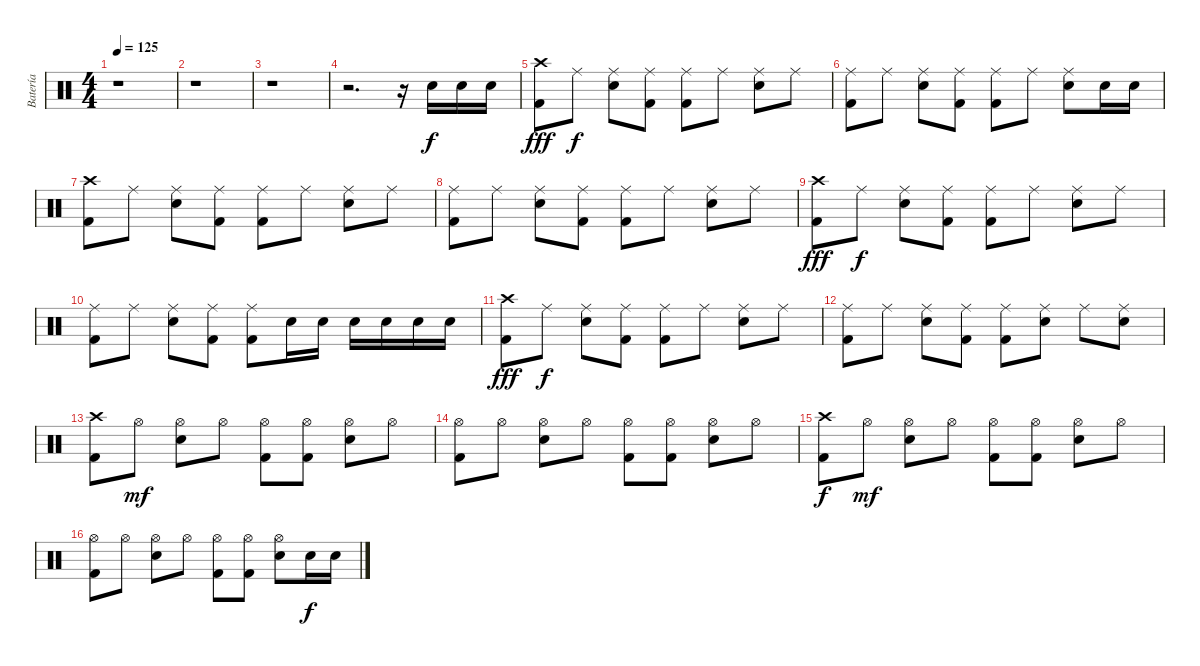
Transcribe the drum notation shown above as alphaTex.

\track ("Batería" "Batería") {instrument percussion}
\staff {score}
\articulation defaults
\ts (4 4)
\tempo 125
\clef neutral
\ks c
r.1{dy f} |
r.1 |
r.1 |
r.2{d} r.16 "Snare (hit) 2".16 "Snare (hit) 2".16 "Snare (hit) 2".16 |
("Crash high (hit)" "Kick (hit) 2").8{dy fff} "Ride (middle)".8{dy f} ("Ride (middle)" "Snare (hit) 2").8 ("Ride (middle)" "Kick (hit) 2").8 ("Ride (middle)" "Kick (hit) 2").8 "Ride (middle)".8 ("Ride (middle)" "Snare (hit) 2").8 "Ride (middle)".8 |
("Ride (middle)" "Kick (hit) 2").8 "Ride (middle)".8 ("Ride (middle)" "Snare (hit) 2").8 ("Ride (middle)" "Kick (hit) 2").8 ("Ride (middle)" "Kick (hit) 2").8 "Ride (middle)".8 ("Ride (middle)" "Snare (hit) 2").8 "Snare (hit) 2".16 "Snare (hit) 2".16 |
("Crash high (hit)" "Kick (hit) 2").8 "Ride (middle)".8 ("Ride (middle)" "Snare (hit) 2").8 ("Ride (middle)" "Kick (hit) 2").8 ("Ride (middle)" "Kick (hit) 2").8 "Ride (middle)".8 ("Ride (middle)" "Snare (hit) 2").8 "Ride (middle)".8 |
("Ride (middle)" "Kick (hit) 2").8 "Ride (middle)".8 ("Ride (middle)" "Snare (hit) 2").8 ("Ride (middle)" "Kick (hit) 2").8 ("Ride (middle)" "Kick (hit) 2").8 "Ride (middle)".8 ("Ride (middle)" "Snare (hit) 2").8 "Ride (middle)".8 |
("Crash high (hit)" "Kick (hit) 2").8{dy fff} "Ride (middle)".8{dy f} ("Ride (middle)" "Snare (hit) 2").8 ("Ride (middle)" "Kick (hit) 2").8 ("Ride (middle)" "Kick (hit) 2").8 "Ride (middle)".8 ("Ride (middle)" "Snare (hit) 2").8 "Ride (middle)".8 |
("Ride (middle)" "Kick (hit) 2").8 "Ride (middle)".8 ("Ride (middle)" "Snare (hit) 2").8 ("Ride (middle)" "Kick (hit) 2").8 ("Ride (middle)" "Kick (hit) 2").8 "Snare (hit) 2".16 "Snare (hit) 2".16 "Snare (hit) 2".16 "Snare (hit) 2".16 "Snare (hit) 2".16 "Snare (hit) 2".16 |
("Crash high (hit)" "Kick (hit) 2").8{dy fff} "Ride (middle)".8{dy f} ("Ride (middle)" "Snare (hit) 2").8 ("Ride (middle)" "Kick (hit) 2").8 ("Ride (middle)" "Kick (hit) 2").8 "Ride (middle)".8 ("Ride (middle)" "Snare (hit) 2").8 "Ride (middle)".8 |
("Ride (middle)" "Kick (hit) 2").8 "Ride (middle)".8 ("Ride (middle)" "Snare (hit) 2").8 ("Ride (middle)" "Kick (hit) 2").8 ("Ride (middle)" "Kick (hit) 2").8 ("Ride (middle)" "Snare (hit) 2").8 "Ride (middle)".8 ("Ride (middle)" "Snare (hit) 2").8 |
("Crash high (hit)" "Kick (hit) 2").8 "Hi-Hat (open)".8{dy mf} ("Hi-Hat (open)" "Snare (hit) 2").8 "Hi-Hat (open)".8 ("Hi-Hat (open)" "Kick (hit) 2").8 ("Hi-Hat (open)" "Kick (hit) 2").8 ("Hi-Hat (open)" "Snare (hit) 2").8 "Hi-Hat (open)".8 |
("Hi-Hat (open)" "Kick (hit) 2").8 "Hi-Hat (open)".8 ("Hi-Hat (open)" "Snare (hit) 2").8 "Hi-Hat (open)".8 ("Hi-Hat (open)" "Kick (hit) 2").8 ("Hi-Hat (open)" "Kick (hit) 2").8 ("Hi-Hat (open)" "Snare (hit) 2").8 "Hi-Hat (open)".8 |
("Crash high (hit)" "Kick (hit) 2").8{dy f} "Hi-Hat (open)".8{dy mf} ("Hi-Hat (open)" "Snare (hit) 2").8 "Hi-Hat (open)".8 ("Hi-Hat (open)" "Kick (hit) 2").8 ("Hi-Hat (open)" "Kick (hit) 2").8 ("Hi-Hat (open)" "Snare (hit) 2").8 "Hi-Hat (open)".8 |
("Hi-Hat (open)" "Kick (hit) 2").8 "Hi-Hat (open)".8 ("Hi-Hat (open)" "Snare (hit) 2").8 "Hi-Hat (open)".8 ("Hi-Hat (open)" "Kick (hit) 2").8 ("Hi-Hat (open)" "Kick (hit) 2").8 ("Hi-Hat (open)" "Snare (hit) 2").8 "Snare (hit) 2".16{dy f} "Snare (hit) 2".16
